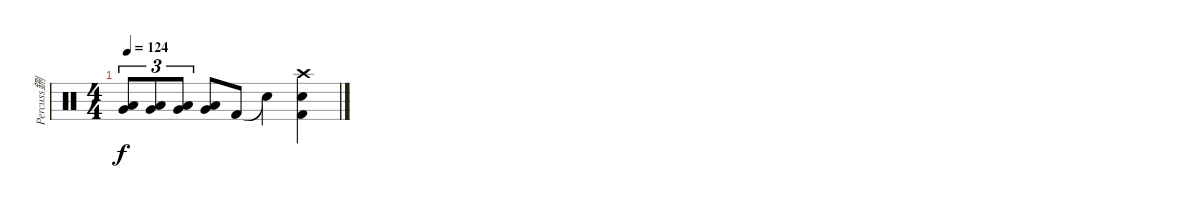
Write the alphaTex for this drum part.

\track ("Percuss鉶" "Percuss鉶") {instrument percussion}
\staff {score}
\articulation defaults
\ts (4 4)
\tempo 124
\clef neutral
\ks c
("Low Tom (hit)" "Very Low Tom (hit)").8{tu (3 2) dy f} ("Low Tom (hit)" "Very Low Tom (hit)").8{tu (3 2)} ("Very Low Tom (hit)" "Low Floor Tom (hit)").8{tu (3 2)} ("Very Low Tom (hit)" "Low Floor Tom (hit)").8 "Kick (hit) 2".8 "Snare (hit)"{t}.4 ("Crash high (hit)" "Snare (hit) 2" "Kick (hit) 2").4
